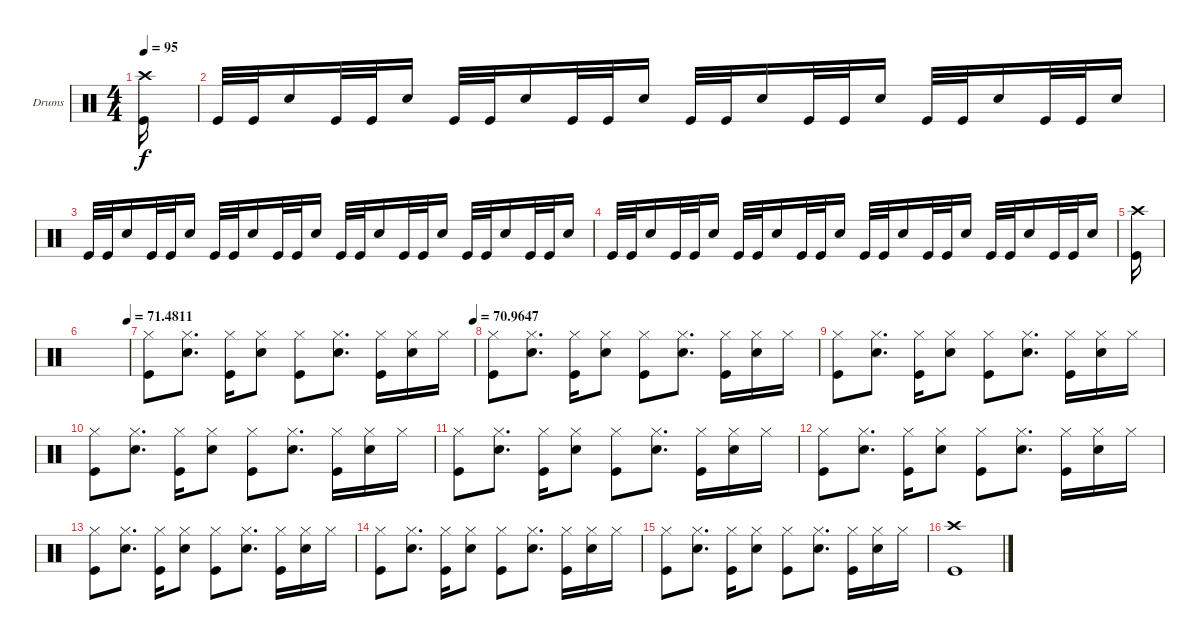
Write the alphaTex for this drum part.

\bracketExtendMode groupsimilarinstruments
\firstSystemTrackNameOrientation horizontal
\otherSystemsTrackNameOrientation horizontal
\track ("Drumkit" "Drums") {instrument percussion}
\staff {score}
\articulation defaults
\ts (4 4)
\tempo 95
\clef neutral
\scale
0.333333
\ks c
("Kick (hit)" "Crash high (hit)").16{dy f} |
\scale
0.333333 "Kick (hit)".32 "Kick (hit)".32 "Snare (hit) 2".16 "Kick (hit)".32 "Kick (hit)".32 "Snare (hit) 2".16 "Kick (hit)".32 "Kick (hit)".32 "Snare (hit) 2".16 "Kick (hit)".32 "Kick (hit)".32 "Snare (hit) 2".16 "Kick (hit)".32 "Kick (hit)".32 "Snare (hit) 2".16 "Kick (hit)".32 "Kick (hit)".32 "Snare (hit) 2".16 "Kick (hit)".32 "Kick (hit)".32 "Snare (hit) 2".16 "Kick (hit)".32 "Kick (hit)".32 "Snare (hit) 2".16 |
\scale
0.333333 "Kick (hit)".32 "Kick (hit)".32 "Snare (hit) 2".16 "Kick (hit)".32 "Kick (hit)".32 "Snare (hit) 2".16 "Kick (hit)".32 "Kick (hit)".32 "Snare (hit) 2".16 "Kick (hit)".32 "Kick (hit)".32 "Snare (hit) 2".16 "Kick (hit)".32 "Kick (hit)".32 "Snare (hit) 2".16 "Kick (hit)".32 "Kick (hit)".32 "Snare (hit) 2".16 "Kick (hit)".32 "Kick (hit)".32 "Snare (hit) 2".16 "Kick (hit)".32 "Kick (hit)".32 "Snare (hit) 2".16 |
\scale
0.333333 "Kick (hit)".32 "Kick (hit)".32 "Snare (hit) 2".16 "Kick (hit)".32 "Kick (hit)".32 "Snare (hit) 2".16 "Kick (hit)".32 "Kick (hit)".32 "Snare (hit) 2".16 "Kick (hit)".32 "Kick (hit)".32 "Snare (hit) 2".16 "Kick (hit)".32 "Kick (hit)".32 "Snare (hit) 2".16 "Kick (hit)".32 "Kick (hit)".32 "Snare (hit) 2".16 "Kick (hit)".32 "Kick (hit)".32 "Snare (hit) 2".16 "Kick (hit)".32 "Kick (hit)".32 "Snare (hit) 2".16 |
\scale
0.333333 ("Kick (hit)" "Crash high (hit)").16 |
\tempo (71.4811 0.96875)
\scale
0.333333 |
\tempo (70.9647 1)
\scale
0.333333 ("Kick (hit)" "Hi-Hat (closed)").8 ("Snare (hit) 2" "Hi-Hat (closed)").8{d} ("Kick (hit)" "Hi-Hat (closed)").16 ("Snare (hit) 2" "Hi-Hat (closed)").8 ("Kick (hit)" "Hi-Hat (closed)").8 ("Snare (hit) 2" "Hi-Hat (closed)").8{d} ("Kick (hit)" "Hi-Hat (closed)").16 ("Snare (hit) 2" "Hi-Hat (closed)").16 "Hi-Hat (closed)".16 |
\scale
0.333333 ("Kick (hit)" "Hi-Hat (closed)").8 ("Snare (hit) 2" "Hi-Hat (closed)").8{d} ("Kick (hit)" "Hi-Hat (closed)").16 ("Snare (hit) 2" "Hi-Hat (closed)").8 ("Kick (hit)" "Hi-Hat (closed)").8 ("Snare (hit) 2" "Hi-Hat (closed)").8{d} ("Kick (hit)" "Hi-Hat (closed)").16 ("Snare (hit) 2" "Hi-Hat (closed)").16 "Hi-Hat (closed)".16 |
\scale
0.333333 ("Kick (hit)" "Hi-Hat (closed)").8 ("Snare (hit) 2" "Hi-Hat (closed)").8{d} ("Kick (hit)" "Hi-Hat (closed)").16 ("Snare (hit) 2" "Hi-Hat (closed)").8 ("Kick (hit)" "Hi-Hat (closed)").8 ("Snare (hit) 2" "Hi-Hat (closed)").8{d} ("Kick (hit)" "Hi-Hat (closed)").16 ("Snare (hit) 2" "Hi-Hat (closed)").16 "Hi-Hat (closed)".16 |
\scale
0.333333 ("Kick (hit)" "Hi-Hat (closed)").8 ("Snare (hit) 2" "Hi-Hat (closed)").8{d} ("Kick (hit)" "Hi-Hat (closed)").16 ("Snare (hit) 2" "Hi-Hat (closed)").8 ("Kick (hit)" "Hi-Hat (closed)").8 ("Snare (hit) 2" "Hi-Hat (closed)").8{d} ("Kick (hit)" "Hi-Hat (closed)").16 ("Snare (hit) 2" "Hi-Hat (closed)").16 "Hi-Hat (closed)".16 |
\scale
0.333333 ("Kick (hit)" "Hi-Hat (closed)").8 ("Snare (hit) 2" "Hi-Hat (closed)").8{d} ("Kick (hit)" "Hi-Hat (closed)").16 ("Snare (hit) 2" "Hi-Hat (closed)").8 ("Kick (hit)" "Hi-Hat (closed)").8 ("Snare (hit) 2" "Hi-Hat (closed)").8{d} ("Kick (hit)" "Hi-Hat (closed)").16 ("Snare (hit) 2" "Hi-Hat (closed)").16 "Hi-Hat (closed)".16 |
\scale
0.333333 ("Kick (hit)" "Hi-Hat (closed)").8 ("Snare (hit) 2" "Hi-Hat (closed)").8{d} ("Kick (hit)" "Hi-Hat (closed)").16 ("Snare (hit) 2" "Hi-Hat (closed)").8 ("Kick (hit)" "Hi-Hat (closed)").8 ("Snare (hit) 2" "Hi-Hat (closed)").8{d} ("Kick (hit)" "Hi-Hat (closed)").16 ("Snare (hit) 2" "Hi-Hat (closed)").16 "Hi-Hat (closed)".16 |
\scale
0.333333 ("Kick (hit)" "Hi-Hat (closed)").8 ("Snare (hit) 2" "Hi-Hat (closed)").8{d} ("Kick (hit)" "Hi-Hat (closed)").16 ("Snare (hit) 2" "Hi-Hat (closed)").8 ("Kick (hit)" "Hi-Hat (closed)").8 ("Snare (hit) 2" "Hi-Hat (closed)").8{d} ("Kick (hit)" "Hi-Hat (closed)").16 ("Snare (hit) 2" "Hi-Hat (closed)").16 "Hi-Hat (closed)".16 |
\scale
0.333333 ("Kick (hit)" "Hi-Hat (closed)").8 ("Snare (hit) 2" "Hi-Hat (closed)").8{d} ("Kick (hit)" "Hi-Hat (closed)").16 ("Snare (hit) 2" "Hi-Hat (closed)").8 ("Kick (hit)" "Hi-Hat (closed)").8 ("Snare (hit) 2" "Hi-Hat (closed)").8{d} ("Kick (hit)" "Hi-Hat (closed)").16 ("Snare (hit) 2" "Hi-Hat (closed)").16 "Hi-Hat (closed)".16 |
\scale
0.333333 ("Kick (hit)" "Hi-Hat (closed)").8 ("Snare (hit) 2" "Hi-Hat (closed)").8{d} ("Kick (hit)" "Hi-Hat (closed)").16 ("Snare (hit) 2" "Hi-Hat (closed)").8 ("Kick (hit)" "Hi-Hat (closed)").8 ("Snare (hit) 2" "Hi-Hat (closed)").8{d} ("Kick (hit)" "Hi-Hat (closed)").16 ("Snare (hit) 2" "Hi-Hat (closed)").16 "Hi-Hat (closed)".16 |
\scale
0.333333 ("Kick (hit)" "Crash high (hit)").1
